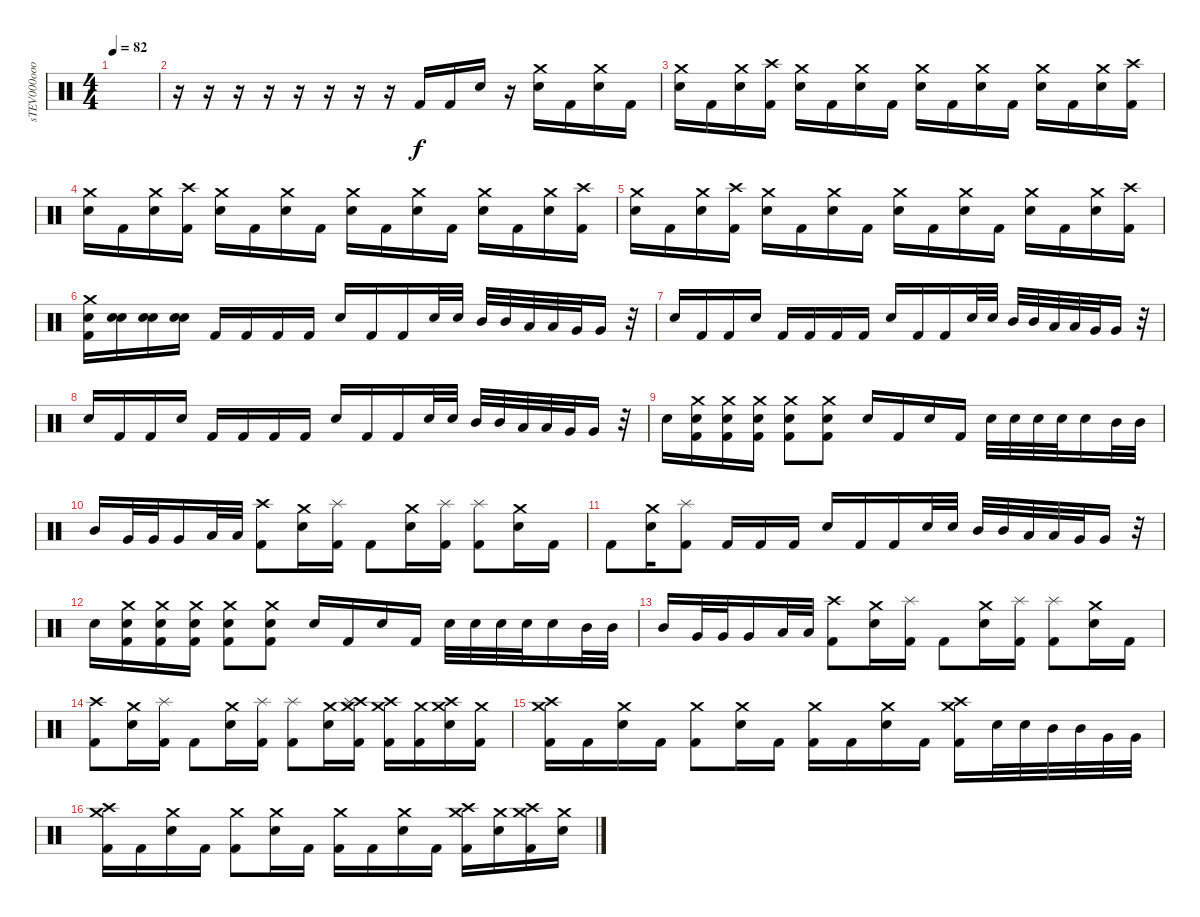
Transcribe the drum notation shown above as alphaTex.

\track ("sTEV000oooooooooOOOO 32" "sTEV000ooo") {instrument percussion}
\staff {score}
\articulation defaults
\ts (4 4)
\tempo 82
\clef neutral
\ks c
|
r.16 r.16 r.16 r.16 r.16 r.16 r.16 r.16 "Kick (hit) 2".16 "Kick (hit) 2".16 "Electric Snare (hit)".16 r.16 ("Crash medium (hit)" "Electric Snare (hit)").16 "Kick (hit) 2".16 ("Crash medium (hit)" "Electric Snare (hit)").16 "Kick (hit) 2".16 |
("Crash medium (hit)" "Electric Snare (hit)").16 "Kick (hit) 2".16 ("Crash medium (hit)" "Electric Snare (hit)").16 ("Crash high (hit)" "Kick (hit) 2").16 ("Crash medium (hit)" "Electric Snare (hit)").16 "Kick (hit) 2".16 ("Crash medium (hit)" "Electric Snare (hit)").16 "Kick (hit) 2".16 ("Crash medium (hit)" "Electric Snare (hit)").16 "Kick (hit) 2".16 ("Crash medium (hit)" "Electric Snare (hit)").16 "Kick (hit) 2".16 ("Crash medium (hit)" "Electric Snare (hit)").16 "Kick (hit) 2".16 ("Crash medium (hit)" "Electric Snare (hit)").16 ("Crash high (hit)" "Kick (hit) 2").16 |
("Crash medium (hit)" "Electric Snare (hit)").16 "Kick (hit) 2".16 ("Crash medium (hit)" "Electric Snare (hit)").16 ("Crash high (hit)" "Kick (hit) 2").16 ("Crash medium (hit)" "Electric Snare (hit)").16 "Kick (hit) 2".16 ("Crash medium (hit)" "Electric Snare (hit)").16 "Kick (hit) 2".16 ("Crash medium (hit)" "Electric Snare (hit)").16 "Kick (hit) 2".16 ("Crash medium (hit)" "Electric Snare (hit)").16 "Kick (hit) 2".16 ("Crash medium (hit)" "Electric Snare (hit)").16 "Kick (hit) 2".16 ("Crash medium (hit)" "Electric Snare (hit)").16 ("Crash high (hit)" "Kick (hit) 2").16 |
("Crash medium (hit)" "Electric Snare (hit)").16 "Kick (hit) 2".16 ("Crash medium (hit)" "Electric Snare (hit)").16 ("Crash high (hit)" "Kick (hit) 2").16 ("Crash medium (hit)" "Electric Snare (hit)").16 "Kick (hit) 2".16 ("Crash medium (hit)" "Electric Snare (hit)").16 "Kick (hit) 2".16 ("Crash medium (hit)" "Electric Snare (hit)").16 "Kick (hit) 2".16 ("Crash medium (hit)" "Electric Snare (hit)").16 "Kick (hit) 2".16 ("Crash medium (hit)" "Electric Snare (hit)").16 "Kick (hit) 2".16 ("Crash medium (hit)" "Electric Snare (hit)").16 ("Crash high (hit)" "Kick (hit) 2").16 |
("Crash medium (hit)" "Electric Snare (hit)" "Kick (hit) 2").16 ("Electric Snare (hit)" "Electric Snare (hit)").16 ("Electric Snare (hit)" "Electric Snare (hit)").16 ("Electric Snare (hit)" "Electric Snare (hit)").16 "Kick (hit) 2".16 "Kick (hit) 2".16 "Kick (hit) 2".16 "Kick (hit) 2".16 "Electric Snare (hit)".16 "Kick (hit) 2".16 "Kick (hit) 2".16 "Electric Snare (hit)".32 "Electric Snare (hit)".32 "Mid Tom (hit)".32 "Mid Tom (hit)".32 "Low Tom (hit)".32 "Low Tom (hit)".32 "Very Low Tom (hit)".32 "Very Low Tom (hit)".16 r.32 |
"Electric Snare (hit)".16 "Kick (hit) 2".16 "Kick (hit) 2".16 "Electric Snare (hit)".16 "Kick (hit) 2".16 "Kick (hit) 2".16 "Kick (hit) 2".16 "Kick (hit) 2".16 "Electric Snare (hit)".16 "Kick (hit) 2".16 "Kick (hit) 2".16 "Electric Snare (hit)".32 "Electric Snare (hit)".32 "Mid Tom (hit)".32 "Mid Tom (hit)".32 "Low Tom (hit)".32 "Low Tom (hit)".32 "Very Low Tom (hit)".32 "Very Low Tom (hit)".16 r.32 |
"Electric Snare (hit)".16 "Kick (hit) 2".16 "Kick (hit) 2".16 "Electric Snare (hit)".16 "Kick (hit) 2".16 "Kick (hit) 2".16 "Kick (hit) 2".16 "Kick (hit) 2".16 "Electric Snare (hit)".16 "Kick (hit) 2".16 "Kick (hit) 2".16 "Electric Snare (hit)".32 "Electric Snare (hit)".32 "Mid Tom (hit)".32 "Mid Tom (hit)".32 "Low Tom (hit)".32 "Low Tom (hit)".32 "Very Low Tom (hit)".32 "Very Low Tom (hit)".16 r.32 |
"Electric Snare (hit)".16 ("Crash medium (hit)" "Electric Snare (hit)" "Kick (hit) 2").16 ("Crash medium (hit)" "Electric Snare (hit)" "Kick (hit) 2").16 ("Crash medium (hit)" "Electric Snare (hit)" "Kick (hit) 2").16 ("Crash medium (hit)" "Electric Snare (hit)" "Kick (hit) 2").8 ("Crash medium (hit)" "Electric Snare (hit)" "Kick (hit) 2").8 "Electric Snare (hit)".16 "Kick (hit) 2".16 "Electric Snare (hit)".16 "Kick (hit) 2".16 "Electric Snare (hit)".32 "Electric Snare (hit)".32 "Electric Snare (hit)".32 "Electric Snare (hit)".32 "Electric Snare (hit)".16 "Mid Tom (hit)".32 "Mid Tom (hit)".32 |
"Mid Tom (hit)".16 "Very Low Tom (hit)".32 "Very Low Tom (hit)".32 "Very Low Tom (hit)".16 "Low Floor Tom (hit)".32 "Low Floor Tom (hit)".32 ("Crash high (hit)" "Kick (hit) 2").8 ("Crash medium (hit)" "Electric Snare (hit)").16 ("Splash (hit)" "Kick (hit) 2").16 "Kick (hit) 2".8 ("Crash medium (hit)" "Electric Snare (hit)").16 ("Splash (hit)" "Kick (hit) 2").16 ("Splash (hit)" "Kick (hit) 2").8 ("Crash medium (hit)" "Electric Snare (hit)").16 "Kick (hit) 2".16 |
"Kick (hit) 2".8 ("Crash medium (hit)" "Electric Snare (hit)").16 ("Splash (hit)" "Kick (hit) 2").8 "Kick (hit) 2".16 "Kick (hit) 2".16 "Kick (hit) 2".16 "Electric Snare (hit)".16 "Kick (hit) 2".16 "Kick (hit) 2".16 "Electric Snare (hit)".32 "Electric Snare (hit)".32 "Mid Tom (hit)".32 "Mid Tom (hit)".32 "Low Tom (hit)".32 "Low Tom (hit)".32 "Very Low Tom (hit)".32 "Very Low Tom (hit)".16 r.32 |
"Electric Snare (hit)".16 ("Crash medium (hit)" "Electric Snare (hit)" "Kick (hit) 2").16 ("Crash medium (hit)" "Electric Snare (hit)" "Kick (hit) 2").16 ("Crash medium (hit)" "Electric Snare (hit)" "Kick (hit) 2").16 ("Crash medium (hit)" "Electric Snare (hit)" "Kick (hit) 2").8 ("Crash medium (hit)" "Electric Snare (hit)" "Kick (hit) 2").8 "Electric Snare (hit)".16 "Kick (hit) 2".16 "Electric Snare (hit)".16 "Kick (hit) 2".16 "Electric Snare (hit)".32 "Electric Snare (hit)".32 "Electric Snare (hit)".32 "Electric Snare (hit)".32 "Electric Snare (hit)".16 "Mid Tom (hit)".32 "Mid Tom (hit)".32 |
"Mid Tom (hit)".16 "Very Low Tom (hit)".32 "Very Low Tom (hit)".32 "Very Low Tom (hit)".16 "Low Floor Tom (hit)".32 "Low Floor Tom (hit)".32 ("Crash high (hit)" "Kick (hit) 2").8 ("Crash medium (hit)" "Electric Snare (hit)").16 ("Splash (hit)" "Kick (hit) 2").16 "Kick (hit) 2".8 ("Crash medium (hit)" "Electric Snare (hit)").16 ("Splash (hit)" "Kick (hit) 2").16 ("Splash (hit)" "Kick (hit) 2").8 ("Crash medium (hit)" "Electric Snare (hit)").16 "Kick (hit) 2".16 |
("Crash high (hit)" "Kick (hit) 2").8 ("Crash medium (hit)" "Electric Snare (hit)").16 ("Splash (hit)" "Kick (hit) 2").16 "Kick (hit) 2".8 ("Crash medium (hit)" "Electric Snare (hit)").16 ("Splash (hit)" "Kick (hit) 2").16 ("Splash (hit)" "Kick (hit) 2").8 ("Crash medium (hit)" "Electric Snare (hit)").16 ("Crash high (hit)" "Splash (hit)" "Crash medium (hit)" "Kick (hit) 2").16 ("Crash medium (hit)" "Crash high (hit)" "Kick (hit) 2").16 ("Crash medium (hit)" "Kick (hit) 2").16 ("Crash medium (hit)" "Crash high (hit)" "Electric Snare (hit)").16 ("Crash medium (hit)" "Kick (hit) 2").16 |
("Crash high (hit)" "Crash medium (hit)" "Kick (hit) 2").16 "Kick (hit) 2".16 ("Crash medium (hit)" "Electric Snare (hit)").16 "Kick (hit) 2".16 ("Crash medium (hit)" "Kick (hit) 2").8 ("Crash medium (hit)" "Electric Snare (hit)").16 "Kick (hit) 2".16 ("Crash medium (hit)" "Kick (hit) 2").16 "Kick (hit) 2".16 ("Crash medium (hit)" "Electric Snare (hit)").16 "Kick (hit) 2".16 ("Crash high (hit)" "Crash medium (hit)" "Kick (hit) 2").16 "Electric Snare (hit)".32 "Electric Snare (hit)".32 "Mid Tom (hit)".32 "Mid Tom (hit)".32 "Very Low Tom (hit)".32 "Very Low Tom (hit)".32 |
("Crash high (hit)" "Crash medium (hit)" "Kick (hit) 2").16 "Kick (hit) 2".16 ("Crash medium (hit)" "Electric Snare (hit)").16 "Kick (hit) 2".16 ("Crash medium (hit)" "Kick (hit) 2").8 ("Crash medium (hit)" "Electric Snare (hit)").16 "Kick (hit) 2".16 ("Crash medium (hit)" "Kick (hit) 2").16 "Kick (hit) 2".16 ("Crash medium (hit)" "Electric Snare (hit)").16 "Kick (hit) 2".16 ("Crash high (hit)" "Crash medium (hit)" "Kick (hit) 2").16 ("Crash medium (hit)" "Electric Snare (hit)").16 ("Crash high (hit)" "Crash medium (hit)" "Kick (hit) 2").16 ("Crash medium (hit)" "Electric Snare (hit)").16
